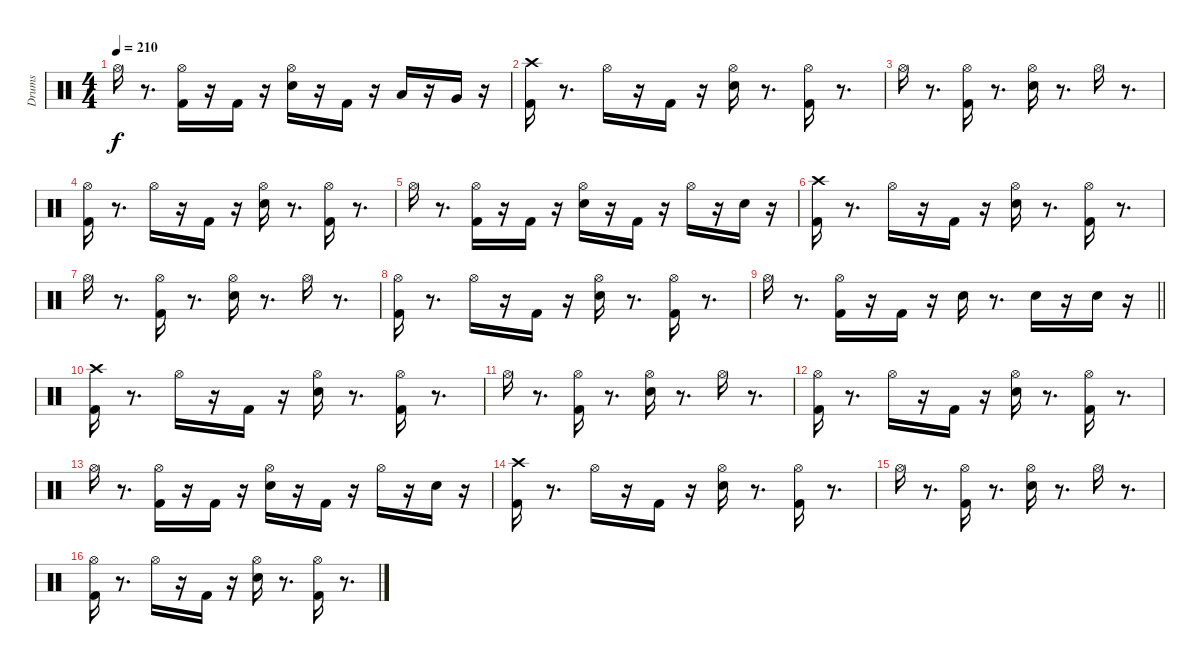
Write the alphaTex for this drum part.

\track ("Drums" "Drums") {instrument percussion}
\staff {score}
\articulation defaults
\ts (4 4)
\tempo 210
\clef neutral
\ks c "Hi-Hat (open)".16{dy f}
r.8{d} ("Kick (hit) 2" "Hi-Hat (open)").16 r.16 "Kick (hit) 2".16 r.16 ("Snare (hit) 2" "Hi-Hat (open)").16 r.16 "Kick (hit) 2".16 r.16 "Low Tom (hit)".16 r.16 "Very Low Tom (hit)".16 r.16 |
("Kick (hit) 2" "Crash high (hit)").16 r.8{d} "Hi-Hat (open)".16 r.16 "Kick (hit) 2".16 r.16 ("Snare (hit) 2" "Hi-Hat (open)").16 r.8{d} ("Kick (hit) 2" "Hi-Hat (open)").16 r.8{d} |
"Hi-Hat (open)".16 r.8{d} ("Kick (hit) 2" "Hi-Hat (open)").16 r.8{d} ("Snare (hit) 2" "Hi-Hat (open)").16 r.8{d} "Hi-Hat (open)".16 r.8{d} |
("Kick (hit) 2" "Hi-Hat (open)").16 r.8{d} "Hi-Hat (open)".16 r.16 "Kick (hit) 2".16 r.16 ("Snare (hit) 2" "Hi-Hat (open)").16 r.8{d} ("Kick (hit) 2" "Hi-Hat (open)").16 r.8{d} |
"Hi-Hat (open)".16 r.8{d} ("Kick (hit) 2" "Hi-Hat (open)").16 r.16 "Kick (hit) 2".16 r.16 ("Snare (hit) 2" "Hi-Hat (open)").16 r.16 "Kick (hit) 2".16 r.16 "Hi-Hat (open)".16 r.16 "Snare (hit) 2".16 r.16 |
("Kick (hit) 2" "Crash high (hit)").16 r.8{d} "Hi-Hat (open)".16 r.16 "Kick (hit) 2".16 r.16 ("Snare (hit) 2" "Hi-Hat (open)").16 r.8{d} ("Kick (hit) 2" "Hi-Hat (open)").16 r.8{d} |
"Hi-Hat (open)".16 r.8{d} ("Kick (hit) 2" "Hi-Hat (open)").16 r.8{d} ("Snare (hit) 2" "Hi-Hat (open)").16 r.8{d} "Hi-Hat (open)".16 r.8{d} |
("Kick (hit) 2" "Hi-Hat (open)").16 r.8{d} "Hi-Hat (open)".16 r.16 "Kick (hit) 2".16 r.16 ("Snare (hit) 2" "Hi-Hat (open)").16 r.8{d} ("Kick (hit) 2" "Hi-Hat (open)").16 r.8{d} |
\barLineRight lightlight "Hi-Hat (open)".16
r.8{d} ("Kick (hit) 2" "Hi-Hat (open)").16 r.16 "Kick (hit) 2".16 r.16 "Snare (hit) 2".16 r.8{d} "Snare (hit) 2".16 r.16 "Snare (hit) 2".16 r.16 |
\section ("" " ")
("Kick (hit) 2" "Crash high (hit)").16 r.8{d} "Hi-Hat (open)".16 r.16 "Kick (hit) 2".16 r.16 ("Snare (hit) 2" "Hi-Hat (open)").16 r.8{d} ("Kick (hit) 2" "Hi-Hat (open)").16 r.8{d} |
"Hi-Hat (open)".16 r.8{d} ("Kick (hit) 2" "Hi-Hat (open)").16 r.8{d} ("Snare (hit) 2" "Hi-Hat (open)").16 r.8{d} "Hi-Hat (open)".16 r.8{d} |
("Kick (hit) 2" "Hi-Hat (open)").16 r.8{d} "Hi-Hat (open)".16 r.16 "Kick (hit) 2".16 r.16 ("Snare (hit) 2" "Hi-Hat (open)").16 r.8{d} ("Kick (hit) 2" "Hi-Hat (open)").16 r.8{d} |
"Hi-Hat (open)".16 r.8{d} ("Kick (hit) 2" "Hi-Hat (open)").16 r.16 "Kick (hit) 2".16 r.16 ("Snare (hit) 2" "Hi-Hat (open)").16 r.16 "Kick (hit) 2".16 r.16 "Hi-Hat (open)".16 r.16 "Snare (hit) 2".16 r.16 |
("Kick (hit) 2" "Crash high (hit)").16 r.8{d} "Hi-Hat (open)".16 r.16 "Kick (hit) 2".16 r.16 ("Snare (hit) 2" "Hi-Hat (open)").16 r.8{d} ("Kick (hit) 2" "Hi-Hat (open)").16 r.8{d} |
"Hi-Hat (open)".16 r.8{d} ("Kick (hit) 2" "Hi-Hat (open)").16 r.8{d} ("Snare (hit) 2" "Hi-Hat (open)").16 r.8{d} "Hi-Hat (open)".16 r.8{d} |
("Kick (hit) 2" "Hi-Hat (open)").16 r.8{d} "Hi-Hat (open)".16 r.16 "Kick (hit) 2".16 r.16 ("Snare (hit) 2" "Hi-Hat (open)").16 r.8{d} ("Kick (hit) 2" "Hi-Hat (open)").16 r.8{d}
